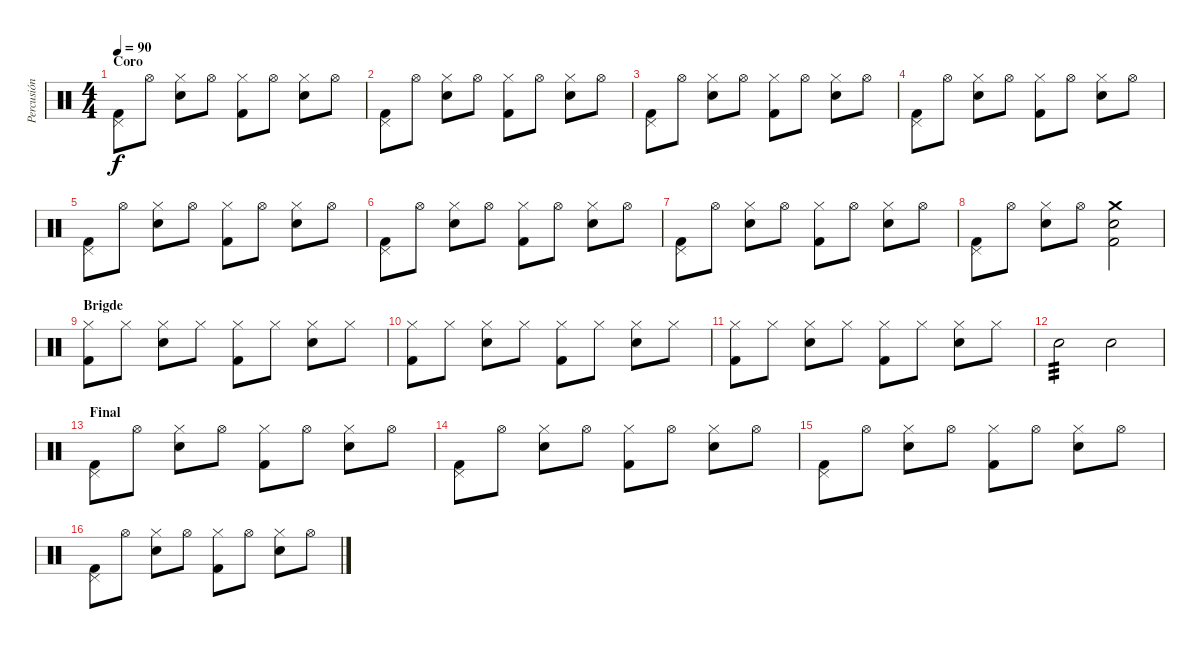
\track ("Percusión" "Percusión") {instrument percussion}
\staff {score}
\articulation defaults
\ts (4 4)
\section ("" "Coro")
\tempo 90
\clef neutral
\ks c
("Pedal Hi-Hat (hit)" "Kick (hit) 2").8{dy f} "Hi-Hat (open)".8 ("Hi-Hat (closed)" "Snare (hit) 2").8 "Hi-Hat (open)".8 ("Hi-Hat (closed)" "Kick (hit) 2").8 "Hi-Hat (open)".8 ("Hi-Hat (closed)" "Snare (hit) 2").8 "Hi-Hat (open)".8 |
("Pedal Hi-Hat (hit)" "Kick (hit) 2").8 "Hi-Hat (open)".8 ("Hi-Hat (closed)" "Snare (hit) 2").8 "Hi-Hat (open)".8 ("Hi-Hat (closed)" "Kick (hit) 2").8 "Hi-Hat (open)".8 ("Hi-Hat (closed)" "Snare (hit) 2").8 "Hi-Hat (open)".8 |
("Pedal Hi-Hat (hit)" "Kick (hit) 2").8 "Hi-Hat (open)".8 ("Hi-Hat (closed)" "Snare (hit) 2").8 "Hi-Hat (open)".8 ("Hi-Hat (closed)" "Kick (hit) 2").8 "Hi-Hat (open)".8 ("Hi-Hat (closed)" "Snare (hit) 2").8 "Hi-Hat (open)".8 |
("Pedal Hi-Hat (hit)" "Kick (hit) 2").8 "Hi-Hat (open)".8 ("Hi-Hat (closed)" "Snare (hit) 2").8 "Hi-Hat (open)".8 ("Hi-Hat (closed)" "Kick (hit) 2").8 "Hi-Hat (open)".8 ("Hi-Hat (closed)" "Snare (hit) 2").8 "Hi-Hat (open)".8 |
("Pedal Hi-Hat (hit)" "Kick (hit) 2").8 "Hi-Hat (open)".8 ("Hi-Hat (closed)" "Snare (hit) 2").8 "Hi-Hat (open)".8 ("Hi-Hat (closed)" "Kick (hit) 2").8 "Hi-Hat (open)".8 ("Hi-Hat (closed)" "Snare (hit) 2").8 "Hi-Hat (open)".8 |
("Pedal Hi-Hat (hit)" "Kick (hit) 2").8 "Hi-Hat (open)".8 ("Hi-Hat (closed)" "Snare (hit) 2").8 "Hi-Hat (open)".8 ("Hi-Hat (closed)" "Kick (hit) 2").8 "Hi-Hat (open)".8 ("Hi-Hat (closed)" "Snare (hit) 2").8 "Hi-Hat (open)".8 |
("Pedal Hi-Hat (hit)" "Kick (hit) 2").8 "Hi-Hat (open)".8 ("Hi-Hat (closed)" "Snare (hit) 2").8 "Hi-Hat (open)".8 ("Hi-Hat (closed)" "Kick (hit) 2").8 "Hi-Hat (open)".8 ("Hi-Hat (closed)" "Snare (hit) 2").8 "Hi-Hat (open)".8 |
("Pedal Hi-Hat (hit)" "Kick (hit) 2").8 "Hi-Hat (open)".8 ("Hi-Hat (closed)" "Snare (hit) 2").8 "Hi-Hat (open)".8 ("Kick (hit) 2" "Crash medium (hit)" "Snare (hit) 2").2 |
\section ("" "Brigde")
("Hi-Hat (closed)" "Kick (hit) 2").8 "Hi-Hat (closed)".8 ("Hi-Hat (closed)" "Snare (hit) 2").8 "Hi-Hat (closed)".8 ("Hi-Hat (closed)" "Kick (hit) 2").8 "Hi-Hat (closed)".8 ("Hi-Hat (closed)" "Snare (hit) 2").8 "Hi-Hat (closed)".8 |
("Hi-Hat (closed)" "Kick (hit) 2").8 "Hi-Hat (closed)".8 ("Hi-Hat (closed)" "Snare (hit) 2").8 "Hi-Hat (closed)".8 ("Hi-Hat (closed)" "Kick (hit) 2").8 "Hi-Hat (closed)".8 ("Hi-Hat (closed)" "Snare (hit) 2").8 "Hi-Hat (closed)".8 |
("Hi-Hat (closed)" "Kick (hit) 2").8 "Hi-Hat (closed)".8 ("Hi-Hat (closed)" "Snare (hit) 2").8 "Hi-Hat (closed)".8 ("Hi-Hat (closed)" "Kick (hit) 2").8 "Hi-Hat (closed)".8 ("Hi-Hat (closed)" "Snare (hit) 2").8 "Hi-Hat (closed)".8 |
"Snare (hit) 2".2{tp 3} "Snare (hit) 2".2 |
\section ("" "Final")
("Pedal Hi-Hat (hit)" "Kick (hit) 2").8 "Hi-Hat (open)".8 ("Hi-Hat (closed)" "Snare (hit) 2").8 "Hi-Hat (open)".8 ("Hi-Hat (closed)" "Kick (hit) 2").8 "Hi-Hat (open)".8 ("Hi-Hat (closed)" "Snare (hit) 2").8 "Hi-Hat (open)".8 |
("Pedal Hi-Hat (hit)" "Kick (hit) 2").8 "Hi-Hat (open)".8 ("Hi-Hat (closed)" "Snare (hit) 2").8 "Hi-Hat (open)".8 ("Hi-Hat (closed)" "Kick (hit) 2").8 "Hi-Hat (open)".8 ("Hi-Hat (closed)" "Snare (hit) 2").8 "Hi-Hat (open)".8 |
("Pedal Hi-Hat (hit)" "Kick (hit) 2").8 "Hi-Hat (open)".8 ("Hi-Hat (closed)" "Snare (hit) 2").8 "Hi-Hat (open)".8 ("Hi-Hat (closed)" "Kick (hit) 2").8 "Hi-Hat (open)".8 ("Hi-Hat (closed)" "Snare (hit) 2").8 "Hi-Hat (open)".8 |
("Pedal Hi-Hat (hit)" "Kick (hit) 2").8 "Hi-Hat (open)".8 ("Hi-Hat (closed)" "Snare (hit) 2").8 "Hi-Hat (open)".8 ("Hi-Hat (closed)" "Kick (hit) 2").8 "Hi-Hat (open)".8 ("Hi-Hat (closed)" "Snare (hit) 2").8 "Hi-Hat (open)".8
